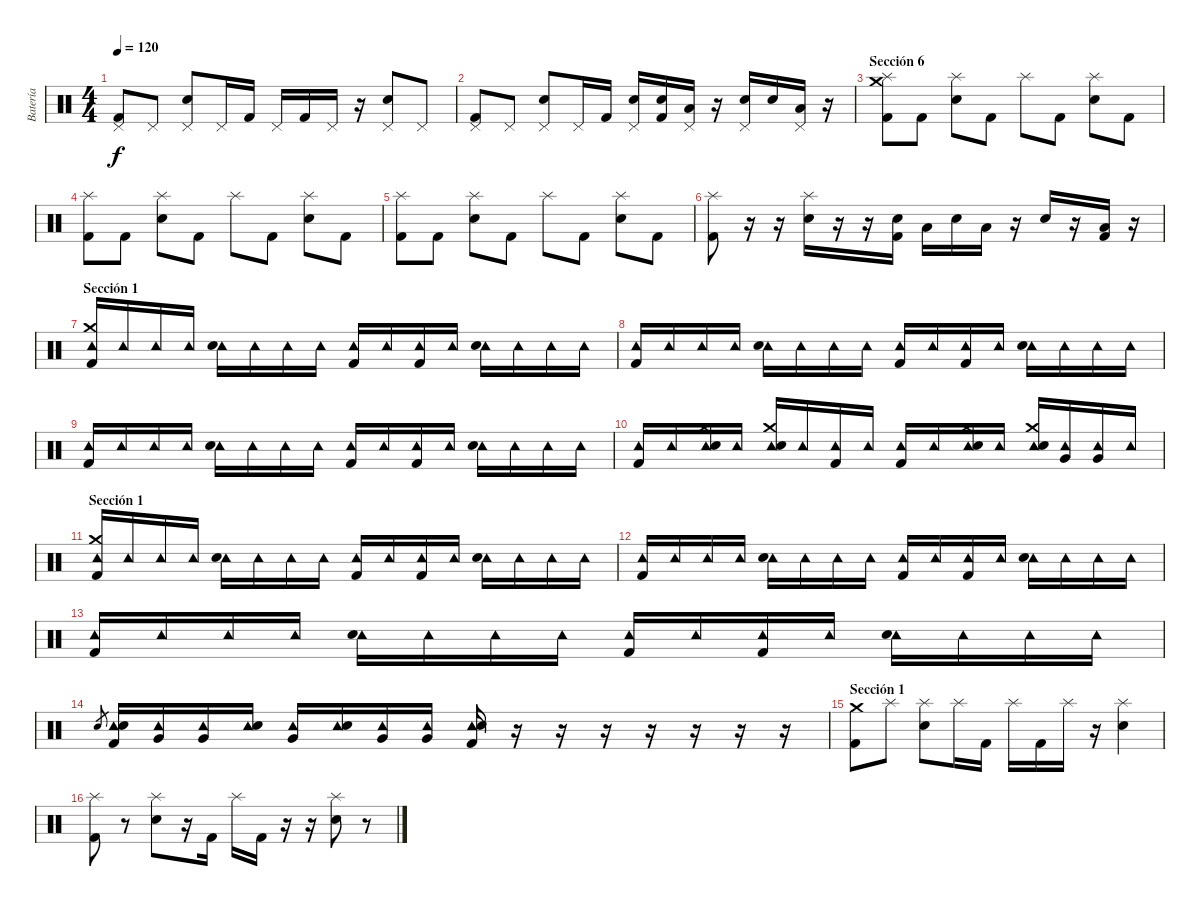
\track ("Batería" "Batería") {instrument percussion}
\staff {score}
\articulation defaults
\ts (4 4)
\tempo 120
\clef neutral
\ks c
("Pedal Hi-Hat (hit)" "Kick (hit) 2").8{dy f} "Pedal Hi-Hat (hit)".8 ("Pedal Hi-Hat (hit)" "Electric Snare (hit)").8 "Pedal Hi-Hat (hit)".16 "Kick (hit) 2".16 "Pedal Hi-Hat (hit)".16 "Kick (hit) 2".16 "Pedal Hi-Hat (hit)".16 r.16 ("Pedal Hi-Hat (hit)" "Electric Snare (hit)").8 "Pedal Hi-Hat (hit)".8 |
("Pedal Hi-Hat (hit)" "Kick (hit) 2").8 "Pedal Hi-Hat (hit)".8 ("Pedal Hi-Hat (hit)" "Electric Snare (hit)").8 "Pedal Hi-Hat (hit)".16 "Kick (hit) 2".16 ("Pedal Hi-Hat (hit)" "Electric Snare (hit)").16 ("Electric Snare (hit)" "Kick (hit) 2").16 ("Pedal Hi-Hat (hit)" "Low Tom (hit)").16 r.16 ("Pedal Hi-Hat (hit)" "Electric Snare (hit)").16 "Electric Snare (hit)".16 ("Pedal Hi-Hat (hit)" "Low Tom (hit)").16 r.16 |
\section ("" "Sección 6")
("Splash (hit)" "Crash medium (hit)" "Kick (hit) 2").8 "Kick (hit) 2".8 ("Splash (hit)" "Electric Snare (hit)").8 "Kick (hit) 2".8 "Splash (hit)".8 "Kick (hit) 2".8 ("Splash (hit)" "Electric Snare (hit)").8 "Kick (hit) 2".8 |
("Splash (hit)" "Kick (hit) 2").8 "Kick (hit) 2".8 ("Splash (hit)" "Electric Snare (hit)").8 "Kick (hit) 2".8 "Splash (hit)".8 "Kick (hit) 2".8 ("Splash (hit)" "Electric Snare (hit)").8 "Kick (hit) 2".8 |
("Splash (hit)" "Kick (hit) 2").8 "Kick (hit) 2".8 ("Splash (hit)" "Electric Snare (hit)").8 "Kick (hit) 2".8 "Splash (hit)".8 "Kick (hit) 2".8 ("Splash (hit)" "Electric Snare (hit)").8 "Kick (hit) 2".8 |
("Splash (hit)" "Kick (hit) 2").8 r.16 r.16 ("Splash (hit)" "Electric Snare (hit)").16 r.16 r.16 ("Electric Snare (hit)" "Kick (hit) 2").16 "Low Tom (hit)".16 "Electric Snare (hit)".16 "Low Tom (hit)".16 r.16 "Electric Snare (hit)".16 r.16 ("Low Tom (hit)" "Kick (hit) 2").16 r.16 |
\section ("" "Sección 1")
("Tambourine (hit)" "Crash medium (hit)" "Kick (hit) 2").16 "Tambourine (hit)".16 "Tambourine (hit)".16 "Tambourine (hit)".16 ("Tambourine (hit)" "Electric Snare (hit)").16 "Tambourine (hit)".16 "Tambourine (hit)".16 "Tambourine (hit)".16 ("Tambourine (hit)" "Kick (hit) 2").16 "Tambourine (hit)".16 ("Tambourine (hit)" "Kick (hit) 2").16 "Tambourine (hit)".16 ("Tambourine (hit)" "Electric Snare (hit)").16 "Tambourine (hit)".16 "Tambourine (hit)".16 "Tambourine (hit)".16 |
("Tambourine (hit)" "Kick (hit) 2").16 "Tambourine (hit)".16 "Tambourine (hit)".16 "Tambourine (hit)".16 ("Tambourine (hit)" "Electric Snare (hit)").16 "Tambourine (hit)".16 "Tambourine (hit)".16 "Tambourine (hit)".16 ("Tambourine (hit)" "Kick (hit) 2").16 "Tambourine (hit)".16 ("Tambourine (hit)" "Kick (hit) 2").16 "Tambourine (hit)".16 ("Tambourine (hit)" "Electric Snare (hit)").16 "Tambourine (hit)".16 "Tambourine (hit)".16 "Tambourine (hit)".16 |
("Tambourine (hit)" "Kick (hit) 2").16 "Tambourine (hit)".16 "Tambourine (hit)".16 "Tambourine (hit)".16 ("Tambourine (hit)" "Electric Snare (hit)").16 "Tambourine (hit)".16 "Tambourine (hit)".16 "Tambourine (hit)".16 ("Tambourine (hit)" "Kick (hit) 2").16 "Tambourine (hit)".16 ("Tambourine (hit)" "Kick (hit) 2").16 "Tambourine (hit)".16 ("Tambourine (hit)" "Electric Snare (hit)").16 "Tambourine (hit)".16 "Tambourine (hit)".16 "Tambourine (hit)".16 |
("Tambourine (hit)" "Kick (hit) 2").16 "Tambourine (hit)".16 ("Tambourine (hit)" "Crash medium (hit)" "Electric Snare (hit)").16 "Tambourine (hit)".16 ("Tambourine (hit)" "Crash medium (hit)" "Electric Snare (hit)").16 "Tambourine (hit)".16 ("Tambourine (hit)" "Kick (hit) 2").16 "Tambourine (hit)".16 ("Tambourine (hit)" "Kick (hit) 2").16 "Tambourine (hit)".16 ("Tambourine (hit)" "Crash medium (hit)" "Electric Snare (hit)").16 "Tambourine (hit)".16 ("Tambourine (hit)" "Crash medium (hit)" "Electric Snare (hit)").16 ("Tambourine (hit)" "Very Low Tom (hit)").16 ("Tambourine (hit)" "Very Low Tom (hit)").16 "Tambourine (hit)".16 |
\section ("" "Sección 1")
("Tambourine (hit)" "Crash medium (hit)" "Kick (hit) 2").16 "Tambourine (hit)".16 "Tambourine (hit)".16 "Tambourine (hit)".16 ("Tambourine (hit)" "Electric Snare (hit)").16 "Tambourine (hit)".16 "Tambourine (hit)".16 "Tambourine (hit)".16 ("Tambourine (hit)" "Kick (hit) 2").16 "Tambourine (hit)".16 ("Tambourine (hit)" "Kick (hit) 2").16 "Tambourine (hit)".16 ("Tambourine (hit)" "Electric Snare (hit)").16 "Tambourine (hit)".16 "Tambourine (hit)".16 "Tambourine (hit)".16 |
("Tambourine (hit)" "Kick (hit) 2").16 "Tambourine (hit)".16 "Tambourine (hit)".16 "Tambourine (hit)".16 ("Tambourine (hit)" "Electric Snare (hit)").16 "Tambourine (hit)".16 "Tambourine (hit)".16 "Tambourine (hit)".16 ("Tambourine (hit)" "Kick (hit) 2").16 "Tambourine (hit)".16 ("Tambourine (hit)" "Kick (hit) 2").16 "Tambourine (hit)".16 ("Tambourine (hit)" "Electric Snare (hit)").16 "Tambourine (hit)".16 "Tambourine (hit)".16 "Tambourine (hit)".16 |
("Tambourine (hit)" "Kick (hit) 2").16 "Tambourine (hit)".16 "Tambourine (hit)".16 "Tambourine (hit)".16 ("Tambourine (hit)" "Electric Snare (hit)").16 "Tambourine (hit)".16 "Tambourine (hit)".16 "Tambourine (hit)".16 ("Tambourine (hit)" "Kick (hit) 2").16 "Tambourine (hit)".16 ("Tambourine (hit)" "Kick (hit) 2").16 "Tambourine (hit)".16 ("Tambourine (hit)" "Electric Snare (hit)").16 "Tambourine (hit)".16 "Tambourine (hit)".16 "Tambourine (hit)".16 |
"Electric Snare (hit)".8{gr} ("Tambourine (hit)" "Electric Snare (hit)" "Kick (hit) 2").16 ("Tambourine (hit)" "Very Low Tom (hit)").16 ("Tambourine (hit)" "Very Low Tom (hit)").16 ("Tambourine (hit)" "Electric Snare (hit)").16 ("Tambourine (hit)" "Very Low Tom (hit)").16 ("Tambourine (hit)" "Electric Snare (hit)").16 ("Tambourine (hit)" "Very Low Tom (hit)").16 ("Tambourine (hit)" "Very Low Tom (hit)").16 ("Tambourine (hit)" "Electric Snare (hit)" "Kick (hit) 2").16 r.16 r.16 r.16 r.16 r.16 r.16 r.16 |
\section ("" "Sección 1")
("Crash medium (hit)" "Kick (hit) 2").8 "Splash (hit)".8 ("Splash (hit)" "Electric Snare (hit)").8 "Splash (hit)".16 "Kick (hit) 2".16 "Splash (hit)".16 "Kick (hit) 2".16 "Splash (hit)".16 r.16 ("Splash (hit)" "Electric Snare (hit)").4 |
("Splash (hit)" "Kick (hit) 2").8 r.8 ("Splash (hit)" "Electric Snare (hit)").8 r.16 "Kick (hit) 2".16 "Splash (hit)".16 "Kick (hit) 2".16 r.16 r.16 ("Splash (hit)" "Electric Snare (hit)").8 r.8
